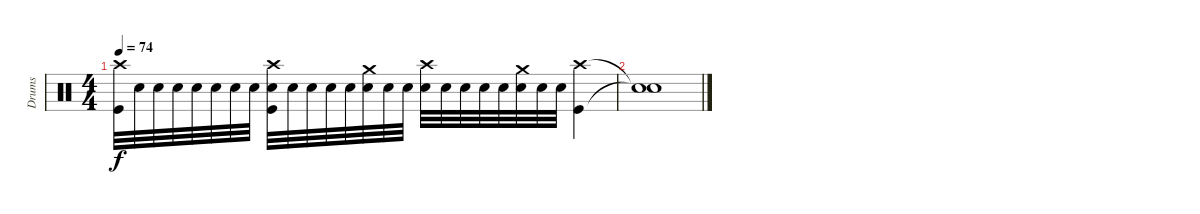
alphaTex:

\track ("Drums" "Drums") {instrument percussion}
\staff {score}
\articulation defaults
\ts (4 4)
\tempo 74
\clef neutral
\ks c
("Crash high (hit)" "Kick (hit)").32{dy f} "Electric Snare (hit)".32 "Electric Snare (hit)".32 "Electric Snare (hit)".32 "Electric Snare (hit)".32 "Electric Snare (hit)".32 "Electric Snare (hit)".32 "Electric Snare (hit)".32 ("Crash high (hit)" "Electric Snare (hit)" "Kick (hit)").32 "Electric Snare (hit)".32 "Electric Snare (hit)".32 "Electric Snare (hit)".32 "Electric Snare (hit)".32 ("Crash medium (hit)" "Electric Snare (hit)").32 "Electric Snare (hit)".32 "Electric Snare (hit)".32 ("Crash high (hit)" "Electric Snare (hit)").32 "Electric Snare (hit)".32 "Electric Snare (hit)".32 "Electric Snare (hit)".32 "Electric Snare (hit)".32 ("Crash medium (hit)" "Electric Snare (hit)").32 "Electric Snare (hit)".32 "Electric Snare (hit)".32 ("Crash high (hit)" "Kick (hit)").4 |
("Snare (hit)"{t} "Snare (hit)"{t}).1
